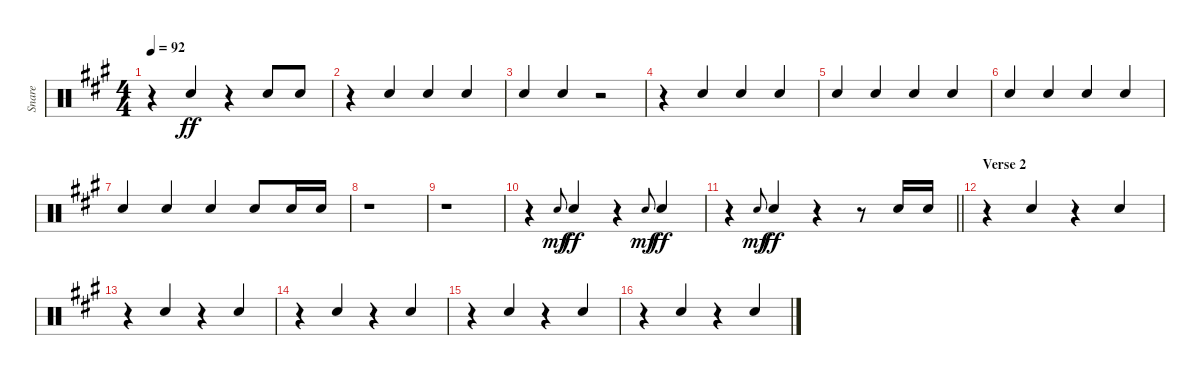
\track ("Snare" "Snare") {instrument percussion}
\staff {score}
\articulation defaults
\ts (4 4)
\tempo 92
\clef neutral
\ks f#minor
r.4{dy ff} "Electric Snare (hit)".4{beam Up} r.4{beam merge} "Electric Snare (hit)".8{beam Up} "Electric Snare (hit)".8{beam Up} |
r.4 "Electric Snare (hit)".4{beam Up} "Electric Snare (hit)".4{beam Up beam merge} "Electric Snare (hit)".4{beam Up} |
"Electric Snare (hit)".4{beam Up beam merge} "Electric Snare (hit)".4{beam Up} r.2 |
r.4 "Electric Snare (hit)".4{beam Up} "Electric Snare (hit)".4{beam Up beam merge} "Electric Snare (hit)".4{beam Up} |
"Electric Snare (hit)".4{beam Up} "Electric Snare (hit)".4{beam Up} "Electric Snare (hit)".4{beam Up beam merge} "Electric Snare (hit)".4{beam Up} |
"Electric Snare (hit)".4{beam Up} "Electric Snare (hit)".4{beam Up} "Electric Snare (hit)".4{beam Up beam merge} "Electric Snare (hit)".4{beam Up} |
"Electric Snare (hit)".4{beam Up} "Electric Snare (hit)".4{beam Up} "Electric Snare (hit)".4{beam Up beam merge} "Electric Snare (hit)".8{beam Up} "Electric Snare (hit)".16{beam Up} "Electric Snare (hit)".16{beam Up} |
r.1 |
r.1 |
r.4 "Electric Snare (hit)".8{gr onbeat dy mf beam merge} "Electric Snare (hit)".4{dy ff beam Up} r.4 "Electric Snare (hit)".8{gr onbeat dy mf beam merge} "Electric Snare (hit)".4{dy ff beam Up} |
\barLineRight lightlight
r.4 "Electric Snare (hit)".8{gr onbeat dy mf beam merge} "Electric Snare (hit)".4{dy ff beam Up} r.4 r.8 "Electric Snare (hit)".16{beam Up} "Electric Snare (hit)".16{beam Up} |
\section ("" "Verse 2")
r.4{beam merge} "Electric Snare (hit)".4{beam Up} r.4{beam merge} "Electric Snare (hit)".4{beam Up} |
r.4 "Electric Snare (hit)".4{beam Up} r.4{beam merge} "Electric Snare (hit)".4{beam Up} |
r.4 "Electric Snare (hit)".4{beam Up} r.4{beam merge} "Electric Snare (hit)".4{beam Up} |
r.4 "Electric Snare (hit)".4{beam Up} r.4 "Electric Snare (hit)".4{beam Up} |
r.4 "Electric Snare (hit)".4{beam Up} r.4{beam merge} "Electric Snare (hit)".4{beam Up}
